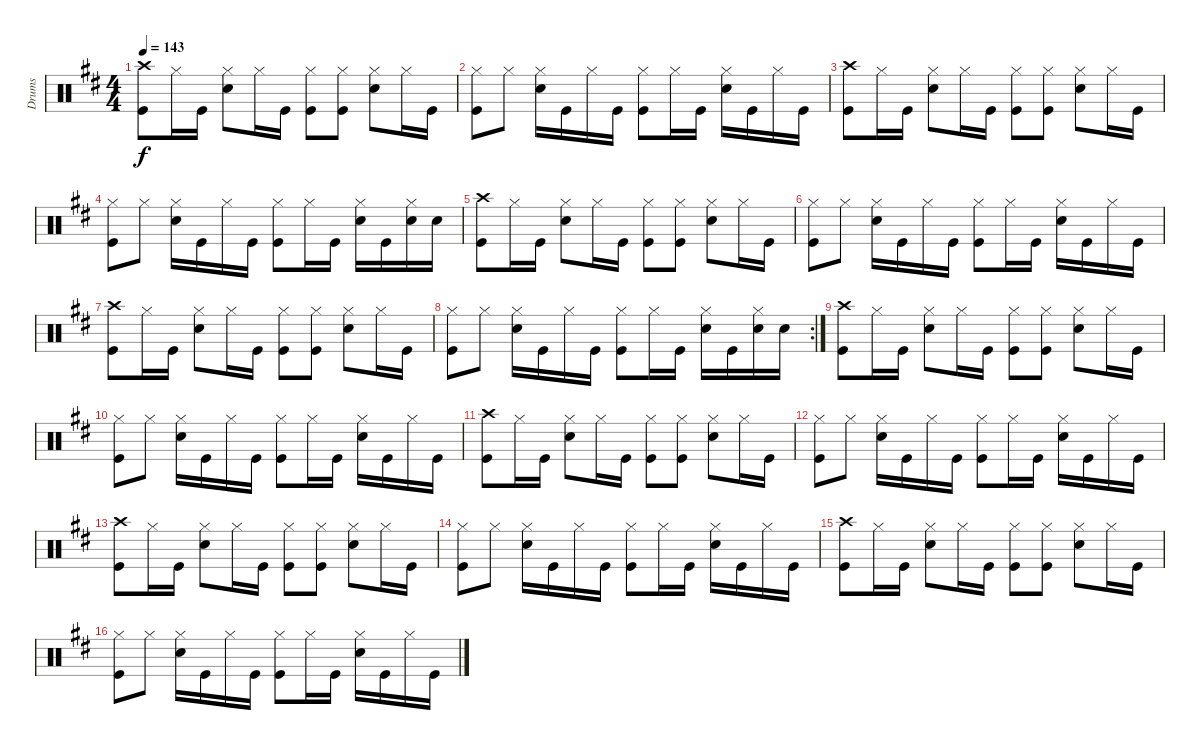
\track ("Drums" "Drums") {instrument percussion}
\staff {score}
\articulation defaults
\ts (4 4)
\tempo 143
\clef neutral
\ks bminor
("Crash high (hit)" "Kick (hit)").8{dy f} "Hi-Hat (closed)".16 "Kick (hit)".16 ("Hi-Hat (closed)" "Snare (hit) 2").8 "Hi-Hat (closed)".16 "Kick (hit)".16 ("Hi-Hat (closed)" "Kick (hit)").8 ("Hi-Hat (closed)" "Kick (hit)").8 ("Hi-Hat (closed)" "Snare (hit) 2").8 "Hi-Hat (closed)".16 "Kick (hit)".16 |
("Hi-Hat (closed)" "Kick (hit)").8 "Hi-Hat (closed)".8 ("Hi-Hat (closed)" "Snare (hit) 2").16 "Kick (hit)".16 "Hi-Hat (closed)".16 "Kick (hit)".16 ("Hi-Hat (closed)" "Kick (hit)").8 "Hi-Hat (closed)".16 "Kick (hit)".16 ("Hi-Hat (closed)" "Snare (hit) 2").16 "Kick (hit)".16 "Hi-Hat (closed)".16 "Kick (hit)".16 |
("Crash high (hit)" "Kick (hit)").8 "Hi-Hat (closed)".16 "Kick (hit)".16 ("Hi-Hat (closed)" "Snare (hit) 2").8 "Hi-Hat (closed)".16 "Kick (hit)".16 ("Hi-Hat (closed)" "Kick (hit)").8 ("Hi-Hat (closed)" "Kick (hit)").8 ("Hi-Hat (closed)" "Snare (hit) 2").8 "Hi-Hat (closed)".16 "Kick (hit)".16 |
("Hi-Hat (closed)" "Kick (hit)").8 "Hi-Hat (closed)".8 ("Hi-Hat (closed)" "Snare (hit) 2").16 "Kick (hit)".16 "Hi-Hat (closed)".16 "Kick (hit)".16 ("Hi-Hat (closed)" "Kick (hit)").8 "Hi-Hat (closed)".16 "Kick (hit)".16 ("Hi-Hat (closed)" "Snare (hit) 2").16 "Kick (hit)".16 ("Hi-Hat (closed)" "Snare (hit) 2").16 "Snare (hit) 2".16 |
("Crash high (hit)" "Kick (hit)").8 "Hi-Hat (closed)".16 "Kick (hit)".16 ("Hi-Hat (closed)" "Snare (hit) 2").8 "Hi-Hat (closed)".16 "Kick (hit)".16 ("Hi-Hat (closed)" "Kick (hit)").8 ("Hi-Hat (closed)" "Kick (hit)").8 ("Hi-Hat (closed)" "Snare (hit) 2").8 "Hi-Hat (closed)".16 "Kick (hit)".16 |
("Hi-Hat (closed)" "Kick (hit)").8 "Hi-Hat (closed)".8 ("Hi-Hat (closed)" "Snare (hit) 2").16 "Kick (hit)".16 "Hi-Hat (closed)".16 "Kick (hit)".16 ("Hi-Hat (closed)" "Kick (hit)").8 "Hi-Hat (closed)".16 "Kick (hit)".16 ("Hi-Hat (closed)" "Snare (hit) 2").16 "Kick (hit)".16 "Hi-Hat (closed)".16 "Kick (hit)".16 |
("Crash high (hit)" "Kick (hit)").8 "Hi-Hat (closed)".16 "Kick (hit)".16 ("Hi-Hat (closed)" "Snare (hit) 2").8 "Hi-Hat (closed)".16 "Kick (hit)".16 ("Hi-Hat (closed)" "Kick (hit)").8 ("Hi-Hat (closed)" "Kick (hit)").8 ("Hi-Hat (closed)" "Snare (hit) 2").8 "Hi-Hat (closed)".16 "Kick (hit)".16 |
\rc 2
("Hi-Hat (closed)" "Kick (hit)").8 "Hi-Hat (closed)".8 ("Hi-Hat (closed)" "Snare (hit) 2").16 "Kick (hit)".16 "Hi-Hat (closed)".16 "Kick (hit)".16 ("Hi-Hat (closed)" "Kick (hit)").8 "Hi-Hat (closed)".16 "Kick (hit)".16 ("Hi-Hat (closed)" "Snare (hit) 2").16 "Kick (hit)".16 ("Hi-Hat (closed)" "Snare (hit) 2").16 "Snare (hit) 2".16 |
("Crash high (hit)" "Kick (hit)").8 "Hi-Hat (closed)".16 "Kick (hit)".16 ("Hi-Hat (closed)" "Snare (hit) 2").8 "Hi-Hat (closed)".16 "Kick (hit)".16 ("Hi-Hat (closed)" "Kick (hit)").8 ("Hi-Hat (closed)" "Kick (hit)").8 ("Hi-Hat (closed)" "Snare (hit) 2").8 "Hi-Hat (closed)".16 "Kick (hit)".16 |
("Hi-Hat (closed)" "Kick (hit)").8 "Hi-Hat (closed)".8 ("Hi-Hat (closed)" "Snare (hit) 2").16 "Kick (hit)".16 "Hi-Hat (closed)".16 "Kick (hit)".16 ("Hi-Hat (closed)" "Kick (hit)").8 "Hi-Hat (closed)".16 "Kick (hit)".16 ("Hi-Hat (closed)" "Snare (hit) 2").16 "Kick (hit)".16 "Hi-Hat (closed)".16 "Kick (hit)".16 |
("Crash high (hit)" "Kick (hit)").8 "Hi-Hat (closed)".16 "Kick (hit)".16 ("Hi-Hat (closed)" "Snare (hit) 2").8 "Hi-Hat (closed)".16 "Kick (hit)".16 ("Hi-Hat (closed)" "Kick (hit)").8 ("Hi-Hat (closed)" "Kick (hit)").8 ("Hi-Hat (closed)" "Snare (hit) 2").8 "Hi-Hat (closed)".16 "Kick (hit)".16 |
("Hi-Hat (closed)" "Kick (hit)").8 "Hi-Hat (closed)".8 ("Hi-Hat (closed)" "Snare (hit) 2").16 "Kick (hit)".16 "Hi-Hat (closed)".16 "Kick (hit)".16 ("Hi-Hat (closed)" "Kick (hit)").8 "Hi-Hat (closed)".16 "Kick (hit)".16 ("Hi-Hat (closed)" "Snare (hit) 2").16 "Kick (hit)".16 "Hi-Hat (closed)".16 "Kick (hit)".16 |
("Crash high (hit)" "Kick (hit)").8 "Hi-Hat (closed)".16 "Kick (hit)".16 ("Hi-Hat (closed)" "Snare (hit) 2").8 "Hi-Hat (closed)".16 "Kick (hit)".16 ("Hi-Hat (closed)" "Kick (hit)").8 ("Hi-Hat (closed)" "Kick (hit)").8 ("Hi-Hat (closed)" "Snare (hit) 2").8 "Hi-Hat (closed)".16 "Kick (hit)".16 |
("Hi-Hat (closed)" "Kick (hit)").8 "Hi-Hat (closed)".8 ("Hi-Hat (closed)" "Snare (hit) 2").16 "Kick (hit)".16 "Hi-Hat (closed)".16 "Kick (hit)".16 ("Hi-Hat (closed)" "Kick (hit)").8 "Hi-Hat (closed)".16 "Kick (hit)".16 ("Hi-Hat (closed)" "Snare (hit) 2").16 "Kick (hit)".16 "Hi-Hat (closed)".16 "Kick (hit)".16 |
("Crash high (hit)" "Kick (hit)").8 "Hi-Hat (closed)".16 "Kick (hit)".16 ("Hi-Hat (closed)" "Snare (hit) 2").8 "Hi-Hat (closed)".16 "Kick (hit)".16 ("Hi-Hat (closed)" "Kick (hit)").8 ("Hi-Hat (closed)" "Kick (hit)").8 ("Hi-Hat (closed)" "Snare (hit) 2").8 "Hi-Hat (closed)".16 "Kick (hit)".16 |
("Hi-Hat (closed)" "Kick (hit)").8 "Hi-Hat (closed)".8 ("Hi-Hat (closed)" "Snare (hit) 2").16 "Kick (hit)".16 "Hi-Hat (closed)".16 "Kick (hit)".16 ("Hi-Hat (closed)" "Kick (hit)").8 "Hi-Hat (closed)".16 "Kick (hit)".16 ("Hi-Hat (closed)" "Snare (hit) 2").16 "Kick (hit)".16 "Hi-Hat (closed)".16 "Kick (hit)".16
